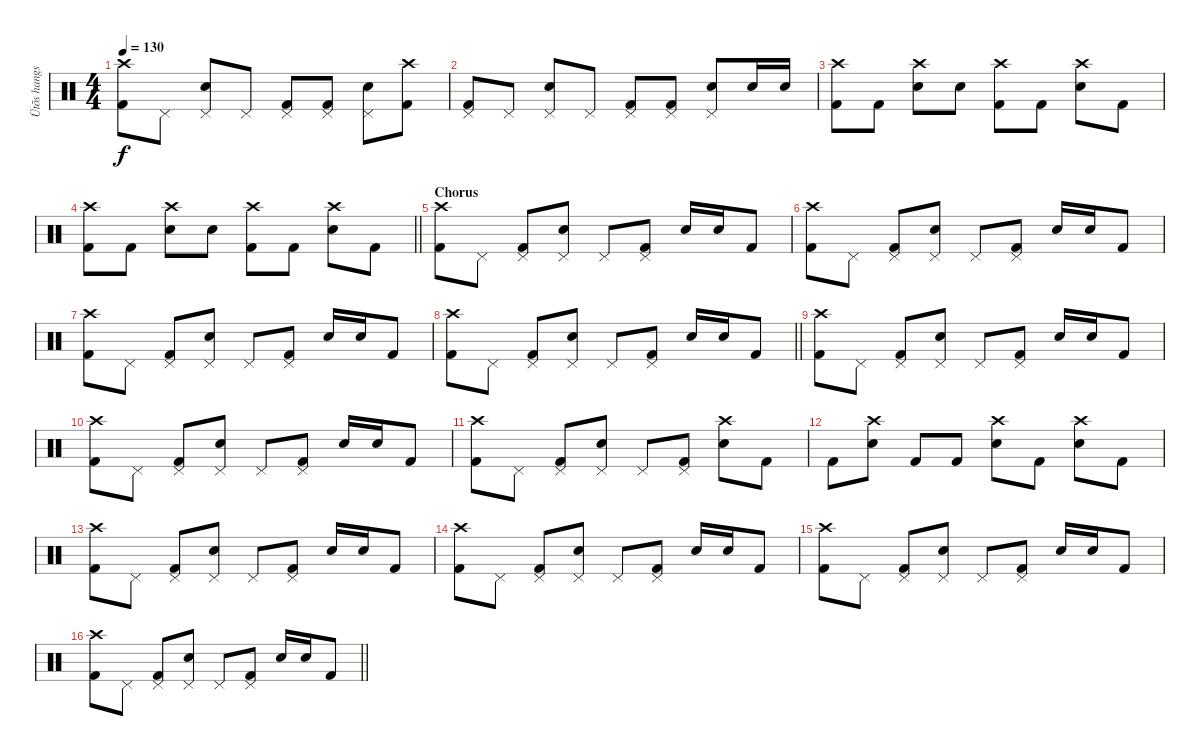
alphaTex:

\track ("Ütõs hangszer" "Ütõs hangs") {instrument percussion}
\staff {score}
\articulation defaults
\ts (4 4)
\tempo 130
\clef neutral
\ks c
("Crash high (hit)" "Kick (hit) 2").8{dy f} "Pedal Hi-Hat (hit)".8 ("Pedal Hi-Hat (hit)" "Snare (hit) 2").8 "Pedal Hi-Hat (hit)".8 ("Pedal Hi-Hat (hit)" "Kick (hit) 2").8 ("Pedal Hi-Hat (hit)" "Kick (hit) 2").8 ("Pedal Hi-Hat (hit)" "Snare (hit) 2").8 ("Crash high (hit)" "Kick (hit) 2").8 |
("Pedal Hi-Hat (hit)" "Kick (hit) 2").8 "Pedal Hi-Hat (hit)".8 ("Pedal Hi-Hat (hit)" "Snare (hit) 2").8 "Pedal Hi-Hat (hit)".8 ("Pedal Hi-Hat (hit)" "Kick (hit) 2").8 ("Pedal Hi-Hat (hit)" "Kick (hit) 2").8 ("Pedal Hi-Hat (hit)" "Snare (hit) 2").8 "Snare (hit) 2".16 "Snare (hit) 2".16 |
("Crash high (hit)" "Kick (hit) 2").8 "Kick (hit) 2".8 ("Crash high (hit)" "Snare (hit) 2").8 "Snare (hit) 2".8 ("Crash high (hit)" "Kick (hit) 2").8 "Kick (hit) 2".8 ("Crash high (hit)" "Snare (hit) 2").8 "Kick (hit) 2".8 |
\barLineRight lightlight
("Crash high (hit)" "Kick (hit) 2").8 "Kick (hit) 2".8 ("Crash high (hit)" "Snare (hit) 2").8 "Snare (hit) 2".8 ("Crash high (hit)" "Kick (hit) 2").8 "Kick (hit) 2".8 ("Crash high (hit)" "Snare (hit) 2").8 "Kick (hit) 2".8 |
\section ("" "Chorus")
("Crash high (hit)" "Kick (hit) 2").8 "Pedal Hi-Hat (hit)".8 ("Pedal Hi-Hat (hit)" "Kick (hit) 2").8 ("Pedal Hi-Hat (hit)" "Snare (hit) 2").8 "Pedal Hi-Hat (hit)".8 ("Pedal Hi-Hat (hit)" "Kick (hit) 2").8 "Snare (hit) 2".16 "Snare (hit) 2".16 "Kick (hit) 2".8 |
("Crash high (hit)" "Kick (hit) 2").8 "Pedal Hi-Hat (hit)".8 ("Pedal Hi-Hat (hit)" "Kick (hit) 2").8 ("Pedal Hi-Hat (hit)" "Snare (hit) 2").8 "Pedal Hi-Hat (hit)".8 ("Pedal Hi-Hat (hit)" "Kick (hit) 2").8 "Snare (hit) 2".16 "Snare (hit) 2".16 "Kick (hit) 2".8 |
("Crash high (hit)" "Kick (hit) 2").8 "Pedal Hi-Hat (hit)".8 ("Pedal Hi-Hat (hit)" "Kick (hit) 2").8 ("Pedal Hi-Hat (hit)" "Snare (hit) 2").8 "Pedal Hi-Hat (hit)".8 ("Pedal Hi-Hat (hit)" "Kick (hit) 2").8 "Snare (hit) 2".16 "Snare (hit) 2".16 "Kick (hit) 2".8 |
\barLineRight lightlight
("Crash high (hit)" "Kick (hit) 2").8 "Pedal Hi-Hat (hit)".8 ("Pedal Hi-Hat (hit)" "Kick (hit) 2").8 ("Pedal Hi-Hat (hit)" "Snare (hit) 2").8 "Pedal Hi-Hat (hit)".8 ("Pedal Hi-Hat (hit)" "Kick (hit) 2").8 "Snare (hit) 2".16 "Snare (hit) 2".16 "Kick (hit) 2".8 |
("Crash high (hit)" "Kick (hit) 2").8 "Pedal Hi-Hat (hit)".8 ("Pedal Hi-Hat (hit)" "Kick (hit) 2").8 ("Pedal Hi-Hat (hit)" "Snare (hit) 2").8 "Pedal Hi-Hat (hit)".8 ("Pedal Hi-Hat (hit)" "Kick (hit) 2").8 "Snare (hit) 2".16 "Snare (hit) 2".16 "Kick (hit) 2".8 |
("Crash high (hit)" "Kick (hit) 2").8 "Pedal Hi-Hat (hit)".8 ("Pedal Hi-Hat (hit)" "Kick (hit) 2").8 ("Pedal Hi-Hat (hit)" "Snare (hit) 2").8 "Pedal Hi-Hat (hit)".8 ("Pedal Hi-Hat (hit)" "Kick (hit) 2").8 "Snare (hit) 2".16 "Snare (hit) 2".16 "Kick (hit) 2".8 |
("Crash high (hit)" "Kick (hit) 2").8 "Pedal Hi-Hat (hit)".8 ("Pedal Hi-Hat (hit)" "Kick (hit) 2").8 ("Pedal Hi-Hat (hit)" "Snare (hit) 2").8 "Pedal Hi-Hat (hit)".8 ("Pedal Hi-Hat (hit)" "Kick (hit) 2").8 ("Crash high (hit)" "Snare (hit) 2").8 "Kick (hit) 2".8 |
"Kick (hit) 2".8 ("Crash high (hit)" "Snare (hit) 2").8 "Kick (hit) 2".8 "Kick (hit) 2".8 ("Crash high (hit)" "Snare (hit) 2").8 "Kick (hit) 2".8 ("Crash high (hit)" "Snare (hit) 2").8 "Kick (hit) 2".8 |
("Crash high (hit)" "Kick (hit) 2").8 "Pedal Hi-Hat (hit)".8 ("Pedal Hi-Hat (hit)" "Kick (hit) 2").8 ("Pedal Hi-Hat (hit)" "Snare (hit) 2").8 "Pedal Hi-Hat (hit)".8 ("Pedal Hi-Hat (hit)" "Kick (hit) 2").8 "Snare (hit) 2".16 "Snare (hit) 2".16 "Kick (hit) 2".8 |
("Crash high (hit)" "Kick (hit) 2").8 "Pedal Hi-Hat (hit)".8 ("Pedal Hi-Hat (hit)" "Kick (hit) 2").8 ("Pedal Hi-Hat (hit)" "Snare (hit) 2").8 "Pedal Hi-Hat (hit)".8 ("Pedal Hi-Hat (hit)" "Kick (hit) 2").8 "Snare (hit) 2".16 "Snare (hit) 2".16 "Kick (hit) 2".8 |
("Crash high (hit)" "Kick (hit) 2").8 "Pedal Hi-Hat (hit)".8 ("Pedal Hi-Hat (hit)" "Kick (hit) 2").8 ("Pedal Hi-Hat (hit)" "Snare (hit) 2").8 "Pedal Hi-Hat (hit)".8 ("Pedal Hi-Hat (hit)" "Kick (hit) 2").8 "Snare (hit) 2".16 "Snare (hit) 2".16 "Kick (hit) 2".8 |
\barLineRight lightlight
("Crash high (hit)" "Kick (hit) 2").8 "Pedal Hi-Hat (hit)".8 ("Pedal Hi-Hat (hit)" "Kick (hit) 2").8 ("Pedal Hi-Hat (hit)" "Snare (hit) 2").8 "Pedal Hi-Hat (hit)".8 ("Pedal Hi-Hat (hit)" "Kick (hit) 2").8 "Snare (hit) 2".16 "Snare (hit) 2".16 "Kick (hit) 2".8
